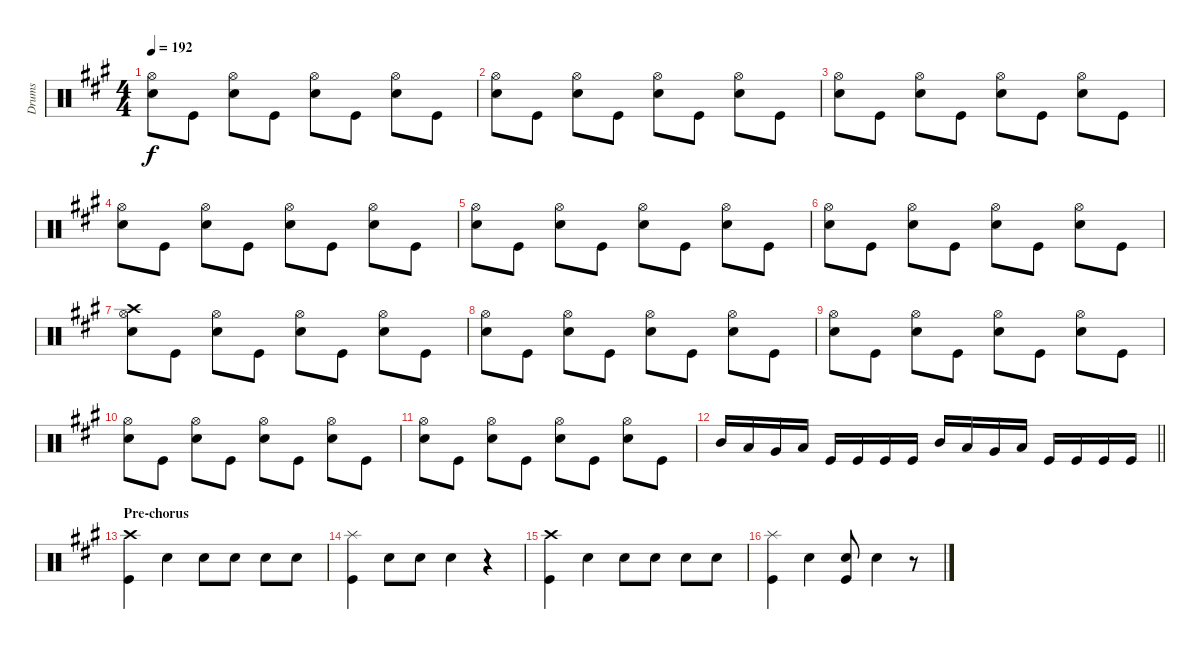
\track ("Drums" "Drums") {instrument percussion}
\staff {score}
\articulation defaults
\ts (4 4)
\tempo 192
\clef neutral
\ks f#minor
("Hi-Hat (open)" "Snare (hit) 2").8{dy f} "Kick (hit)".8 ("Hi-Hat (open)" "Snare (hit) 2").8 "Kick (hit)".8 ("Hi-Hat (open)" "Snare (hit) 2").8 "Kick (hit)".8 ("Hi-Hat (open)" "Snare (hit) 2").8 "Kick (hit)".8 |
("Hi-Hat (open)" "Snare (hit) 2").8 "Kick (hit)".8 ("Hi-Hat (open)" "Snare (hit) 2").8 "Kick (hit)".8 ("Hi-Hat (open)" "Snare (hit) 2").8 "Kick (hit)".8 ("Hi-Hat (open)" "Snare (hit) 2").8 "Kick (hit)".8 |
("Hi-Hat (open)" "Snare (hit) 2").8 "Kick (hit)".8 ("Hi-Hat (open)" "Snare (hit) 2").8 "Kick (hit)".8 ("Hi-Hat (open)" "Snare (hit) 2").8 "Kick (hit)".8 ("Hi-Hat (open)" "Snare (hit) 2").8 "Kick (hit)".8 |
("Hi-Hat (open)" "Snare (hit) 2").8 "Kick (hit)".8 ("Hi-Hat (open)" "Snare (hit) 2").8 "Kick (hit)".8 ("Hi-Hat (open)" "Snare (hit) 2").8 "Kick (hit)".8 ("Hi-Hat (open)" "Snare (hit) 2").8 "Kick (hit)".8 |
("Hi-Hat (open)" "Snare (hit) 2").8 "Kick (hit)".8 ("Hi-Hat (open)" "Snare (hit) 2").8 "Kick (hit)".8 ("Hi-Hat (open)" "Snare (hit) 2").8 "Kick (hit)".8 ("Hi-Hat (open)" "Snare (hit) 2").8 "Kick (hit)".8 |
("Hi-Hat (open)" "Snare (hit) 2").8 "Kick (hit)".8 ("Hi-Hat (open)" "Snare (hit) 2").8 "Kick (hit)".8 ("Hi-Hat (open)" "Snare (hit) 2").8 "Kick (hit)".8 ("Hi-Hat (open)" "Snare (hit) 2").8 "Kick (hit)".8 |
("Crash high (hit)" "Hi-Hat (open)" "Snare (hit) 2").8 "Kick (hit)".8 ("Hi-Hat (open)" "Snare (hit) 2").8 "Kick (hit)".8 ("Hi-Hat (open)" "Snare (hit) 2").8 "Kick (hit)".8 ("Hi-Hat (open)" "Snare (hit) 2").8 "Kick (hit)".8 |
("Hi-Hat (open)" "Snare (hit) 2").8 "Kick (hit)".8 ("Hi-Hat (open)" "Snare (hit) 2").8 "Kick (hit)".8 ("Hi-Hat (open)" "Snare (hit) 2").8 "Kick (hit)".8 ("Hi-Hat (open)" "Snare (hit) 2").8 "Kick (hit)".8 |
("Hi-Hat (open)" "Snare (hit) 2").8 "Kick (hit)".8 ("Hi-Hat (open)" "Snare (hit) 2").8 "Kick (hit)".8 ("Hi-Hat (open)" "Snare (hit) 2").8 "Kick (hit)".8 ("Hi-Hat (open)" "Snare (hit) 2").8 "Kick (hit)".8 |
("Hi-Hat (open)" "Snare (hit) 2").8 "Kick (hit)".8 ("Hi-Hat (open)" "Snare (hit) 2").8 "Kick (hit)".8 ("Hi-Hat (open)" "Snare (hit) 2").8 "Kick (hit)".8 ("Hi-Hat (open)" "Snare (hit) 2").8 "Kick (hit)".8 |
("Hi-Hat (open)" "Snare (hit) 2").8 "Kick (hit)".8 ("Hi-Hat (open)" "Snare (hit) 2").8 "Kick (hit)".8 ("Hi-Hat (open)" "Snare (hit) 2").8 "Kick (hit)".8 ("Hi-Hat (open)" "Snare (hit) 2").8 "Kick (hit)".8 |
\barLineRight lightlight "Mid Tom (hit)".16 "Low Tom (hit)".16 "Very Low Tom (hit)".16 "Low Floor Tom (hit)".16 "Kick (hit)".16 "Kick (hit)".16 "Kick (hit)".16 "Kick (hit)".16 "Mid Tom (hit)".16 "Low Tom (hit)".16 "Very Low Tom (hit)".16 "Low Floor Tom (hit)".16 "Kick (hit)".16 "Kick (hit)".16 "Kick (hit)".16 "Kick (hit)".16
|
\section ("" "Pre-chorus")
("Crash high (hit)" "Kick (hit)").4 "Snare (hit) 2".4 "Snare (hit) 2".8 "Snare (hit) 2".8 "Snare (hit) 2".8 "Snare (hit) 2".8 |
("Splash (hit)" "Kick (hit)").4 "Snare (hit) 2".8 "Snare (hit) 2".8 "Snare (hit) 2".4 r.4 |
("Crash high (hit)" "Kick (hit)").4 "Snare (hit) 2".4 "Snare (hit) 2".8 "Snare (hit) 2".8 "Snare (hit) 2".8 "Snare (hit) 2".8 |
("Splash (hit)" "Kick (hit)").4 "Snare (hit) 2"{tr (38 16)}.4 ("Snare (hit) 2" "Kick (hit)").8 "Snare (hit) 2".4 r.8
